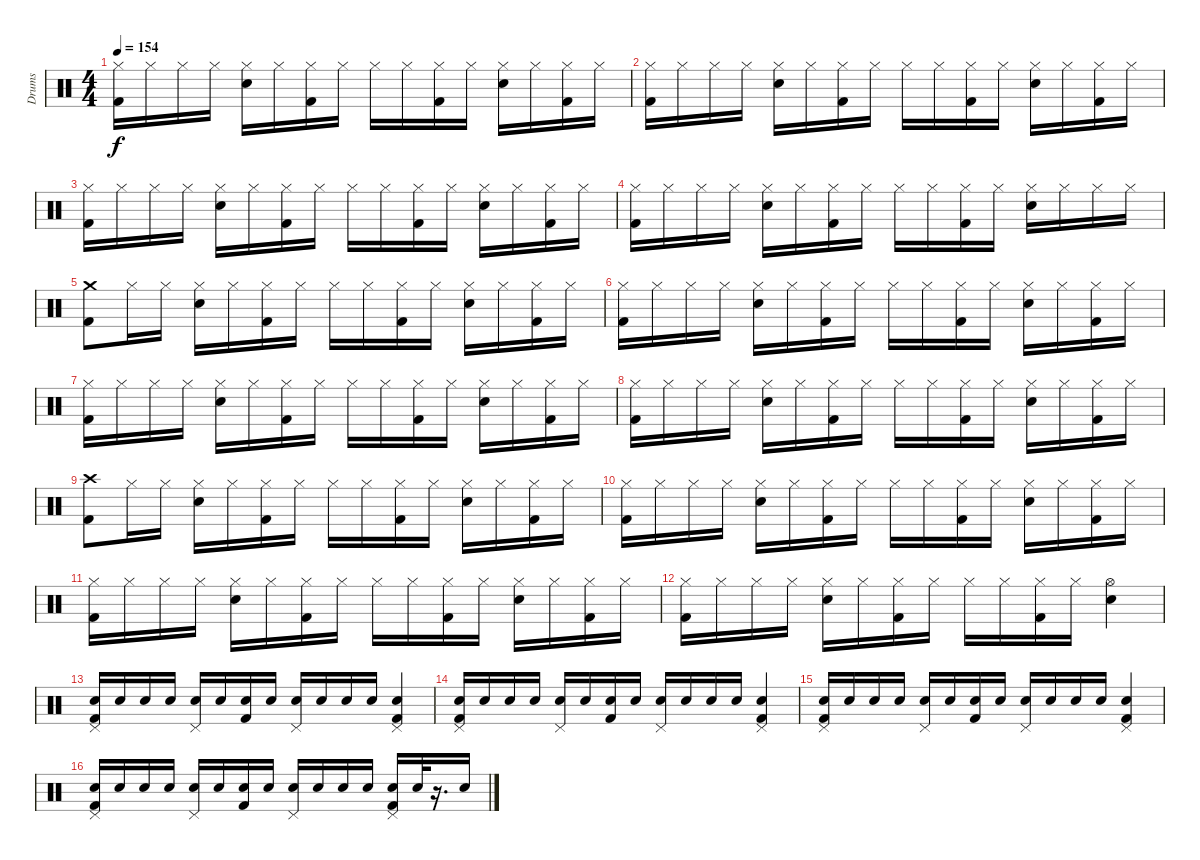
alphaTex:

\track ("Drums" "Drums") {instrument percussion}
\staff {score}
\articulation defaults
\ts (4 4)
\tempo 154
\clef neutral
\ks c
("Hi-Hat (closed)" "Kick (hit) 2").16{dy f} "Hi-Hat (closed)".16 "Hi-Hat (closed)".16 "Hi-Hat (closed)".16 ("Hi-Hat (closed)" "Electric Snare (hit)").16 "Hi-Hat (closed)".16 ("Kick (hit) 2" "Hi-Hat (closed)").16 "Hi-Hat (closed)".16 "Hi-Hat (closed)".16 "Hi-Hat (closed)".16 ("Kick (hit) 2" "Hi-Hat (closed)").16 "Hi-Hat (closed)".16 ("Electric Snare (hit)" "Hi-Hat (closed)").16 "Hi-Hat (closed)".16 ("Kick (hit) 2" "Hi-Hat (closed)").16 "Hi-Hat (closed)".16 |
("Hi-Hat (closed)" "Kick (hit) 2").16 "Hi-Hat (closed)".16 "Hi-Hat (closed)".16 "Hi-Hat (closed)".16 ("Hi-Hat (closed)" "Electric Snare (hit)").16 "Hi-Hat (closed)".16 ("Kick (hit) 2" "Hi-Hat (closed)").16 "Hi-Hat (closed)".16 "Hi-Hat (closed)".16 "Hi-Hat (closed)".16 ("Kick (hit) 2" "Hi-Hat (closed)").16 "Hi-Hat (closed)".16 ("Electric Snare (hit)" "Hi-Hat (closed)").16 "Hi-Hat (closed)".16 ("Kick (hit) 2" "Hi-Hat (closed)").16 "Hi-Hat (closed)".16 |
("Hi-Hat (closed)" "Kick (hit) 2").16 "Hi-Hat (closed)".16 "Hi-Hat (closed)".16 "Hi-Hat (closed)".16 ("Hi-Hat (closed)" "Electric Snare (hit)").16 "Hi-Hat (closed)".16 ("Kick (hit) 2" "Hi-Hat (closed)").16 "Hi-Hat (closed)".16 "Hi-Hat (closed)".16 "Hi-Hat (closed)".16 ("Kick (hit) 2" "Hi-Hat (closed)").16 "Hi-Hat (closed)".16 ("Electric Snare (hit)" "Hi-Hat (closed)").16 "Hi-Hat (closed)".16 ("Kick (hit) 2" "Hi-Hat (closed)").16 "Hi-Hat (closed)".16 |
("Hi-Hat (closed)" "Kick (hit) 2").16 "Hi-Hat (closed)".16 "Hi-Hat (closed)".16 "Hi-Hat (closed)".16 ("Hi-Hat (closed)" "Electric Snare (hit)").16 "Hi-Hat (closed)".16 ("Kick (hit) 2" "Hi-Hat (closed)").16 "Hi-Hat (closed)".16 "Hi-Hat (closed)".16 "Hi-Hat (closed)".16 ("Kick (hit) 2" "Hi-Hat (closed)").16 "Hi-Hat (closed)".16 ("Hi-Hat (closed)" "Electric Snare (hit)").16 "Hi-Hat (closed)".16 "Hi-Hat (closed)".16 "Hi-Hat (closed)".16 |
("Crash medium (hit)" "Kick (hit) 2").8 "Hi-Hat (closed)".16 "Hi-Hat (closed)".16 ("Hi-Hat (closed)" "Electric Snare (hit)").16 "Hi-Hat (closed)".16 ("Kick (hit) 2" "Hi-Hat (closed)").16 "Hi-Hat (closed)".16 "Hi-Hat (closed)".16 "Hi-Hat (closed)".16 ("Kick (hit) 2" "Hi-Hat (closed)").16 "Hi-Hat (closed)".16 ("Electric Snare (hit)" "Hi-Hat (closed)").16 "Hi-Hat (closed)".16 ("Kick (hit) 2" "Hi-Hat (closed)").16 "Hi-Hat (closed)".16 |
("Hi-Hat (closed)" "Kick (hit) 2").16 "Hi-Hat (closed)".16 "Hi-Hat (closed)".16 "Hi-Hat (closed)".16 ("Hi-Hat (closed)" "Electric Snare (hit)").16 "Hi-Hat (closed)".16 ("Kick (hit) 2" "Hi-Hat (closed)").16 "Hi-Hat (closed)".16 "Hi-Hat (closed)".16 "Hi-Hat (closed)".16 ("Kick (hit) 2" "Hi-Hat (closed)").16 "Hi-Hat (closed)".16 ("Electric Snare (hit)" "Hi-Hat (closed)").16 "Hi-Hat (closed)".16 ("Kick (hit) 2" "Hi-Hat (closed)").16 "Hi-Hat (closed)".16 |
("Hi-Hat (closed)" "Kick (hit) 2").16 "Hi-Hat (closed)".16 "Hi-Hat (closed)".16 "Hi-Hat (closed)".16 ("Hi-Hat (closed)" "Electric Snare (hit)").16 "Hi-Hat (closed)".16 ("Kick (hit) 2" "Hi-Hat (closed)").16 "Hi-Hat (closed)".16 "Hi-Hat (closed)".16 "Hi-Hat (closed)".16 ("Kick (hit) 2" "Hi-Hat (closed)").16 "Hi-Hat (closed)".16 ("Electric Snare (hit)" "Hi-Hat (closed)").16 "Hi-Hat (closed)".16 ("Kick (hit) 2" "Hi-Hat (closed)").16 "Hi-Hat (closed)".16 |
("Hi-Hat (closed)" "Kick (hit) 2").16 "Hi-Hat (closed)".16 "Hi-Hat (closed)".16 "Hi-Hat (closed)".16 ("Hi-Hat (closed)" "Electric Snare (hit)").16 "Hi-Hat (closed)".16 ("Kick (hit) 2" "Hi-Hat (closed)").16 "Hi-Hat (closed)".16 "Hi-Hat (closed)".16 "Hi-Hat (closed)".16 ("Kick (hit) 2" "Hi-Hat (closed)").16 "Hi-Hat (closed)".16 ("Electric Snare (hit)" "Hi-Hat (closed)").16 "Hi-Hat (closed)".16 ("Kick (hit) 2" "Hi-Hat (closed)").16 "Hi-Hat (closed)".16 |
("Crash high (hit)" "Kick (hit) 2").8 "Hi-Hat (closed)".16 "Hi-Hat (closed)".16 ("Hi-Hat (closed)" "Electric Snare (hit)").16 "Hi-Hat (closed)".16 ("Kick (hit) 2" "Hi-Hat (closed)").16 "Hi-Hat (closed)".16 "Hi-Hat (closed)".16 "Hi-Hat (closed)".16 ("Kick (hit) 2" "Hi-Hat (closed)").16 "Hi-Hat (closed)".16 ("Electric Snare (hit)" "Hi-Hat (closed)").16 "Hi-Hat (closed)".16 ("Kick (hit) 2" "Hi-Hat (closed)").16 "Hi-Hat (closed)".16 |
("Hi-Hat (closed)" "Kick (hit) 2").16 "Hi-Hat (closed)".16 "Hi-Hat (closed)".16 "Hi-Hat (closed)".16 ("Hi-Hat (closed)" "Electric Snare (hit)").16 "Hi-Hat (closed)".16 ("Kick (hit) 2" "Hi-Hat (closed)").16 "Hi-Hat (closed)".16 "Hi-Hat (closed)".16 "Hi-Hat (closed)".16 ("Kick (hit) 2" "Hi-Hat (closed)").16 "Hi-Hat (closed)".16 ("Electric Snare (hit)" "Hi-Hat (closed)").16 "Hi-Hat (closed)".16 ("Kick (hit) 2" "Hi-Hat (closed)").16 "Hi-Hat (closed)".16 |
("Hi-Hat (closed)" "Kick (hit) 2").16 "Hi-Hat (closed)".16 "Hi-Hat (closed)".16 "Hi-Hat (closed)".16 ("Hi-Hat (closed)" "Electric Snare (hit)").16 "Hi-Hat (closed)".16 ("Kick (hit) 2" "Hi-Hat (closed)").16 "Hi-Hat (closed)".16 "Hi-Hat (closed)".16 "Hi-Hat (closed)".16 ("Kick (hit) 2" "Hi-Hat (closed)").16 "Hi-Hat (closed)".16 ("Electric Snare (hit)" "Hi-Hat (closed)").16 "Hi-Hat (closed)".16 ("Kick (hit) 2" "Hi-Hat (closed)").16 "Hi-Hat (closed)".16 |
("Hi-Hat (closed)" "Kick (hit) 2").16 "Hi-Hat (closed)".16 "Hi-Hat (closed)".16 "Hi-Hat (closed)".16 ("Hi-Hat (closed)" "Electric Snare (hit)").16 "Hi-Hat (closed)".16 ("Kick (hit) 2" "Hi-Hat (closed)").16 "Hi-Hat (closed)".16 "Hi-Hat (closed)".16 "Hi-Hat (closed)".16 ("Kick (hit) 2" "Hi-Hat (closed)").16 "Hi-Hat (closed)".16 ("Hi-Hat (open)" "Electric Snare (hit)").4 |
("Pedal Hi-Hat (hit)" "Electric Snare (hit)" "Kick (hit) 2").16 "Electric Snare (hit)".16 "Electric Snare (hit)".16 "Electric Snare (hit)".16 ("Pedal Hi-Hat (hit)" "Electric Snare (hit)").16 "Electric Snare (hit)".16 ("Kick (hit) 2" "Electric Snare (hit)").16 "Electric Snare (hit)".16 ("Pedal Hi-Hat (hit)" "Electric Snare (hit)").16 "Electric Snare (hit)".16 "Electric Snare (hit)".16 "Electric Snare (hit)".16 ("Kick (hit) 2" "Electric Snare (hit)" "Pedal Hi-Hat (hit)").4 |
("Pedal Hi-Hat (hit)" "Electric Snare (hit)" "Kick (hit) 2").16 "Electric Snare (hit)".16 "Electric Snare (hit)".16 "Electric Snare (hit)".16 ("Pedal Hi-Hat (hit)" "Electric Snare (hit)").16 "Electric Snare (hit)".16 ("Kick (hit) 2" "Electric Snare (hit)").16 "Electric Snare (hit)".16 ("Pedal Hi-Hat (hit)" "Electric Snare (hit)").16 "Electric Snare (hit)".16 "Electric Snare (hit)".16 "Electric Snare (hit)".16 ("Kick (hit) 2" "Electric Snare (hit)" "Pedal Hi-Hat (hit)").4 |
("Electric Snare (hit)" "Pedal Hi-Hat (hit)" "Kick (hit) 2").16 "Electric Snare (hit)".16 "Electric Snare (hit)".16 "Electric Snare (hit)".16 ("Pedal Hi-Hat (hit)" "Electric Snare (hit)").16 "Electric Snare (hit)".16 ("Kick (hit) 2" "Electric Snare (hit)").16 "Electric Snare (hit)".16 ("Pedal Hi-Hat (hit)" "Electric Snare (hit)").16 "Electric Snare (hit)".16 "Electric Snare (hit)".16 "Electric Snare (hit)".16 ("Kick (hit) 2" "Electric Snare (hit)" "Pedal Hi-Hat (hit)").4 |
("Pedal Hi-Hat (hit)" "Electric Snare (hit)" "Kick (hit) 2").16 "Electric Snare (hit)".16 "Electric Snare (hit)".16 "Electric Snare (hit)".16 ("Pedal Hi-Hat (hit)" "Electric Snare (hit)").16 "Electric Snare (hit)".16 ("Kick (hit) 2" "Electric Snare (hit)").16 "Electric Snare (hit)".16 ("Pedal Hi-Hat (hit)" "Electric Snare (hit)").16 "Electric Snare (hit)".16 "Electric Snare (hit)".16 "Electric Snare (hit)".16 ("Kick (hit) 2" "Electric Snare (hit)" "Pedal Hi-Hat (hit)").16 "Electric Snare (hit)".32 r.16{d} "Electric Snare (hit)".16
